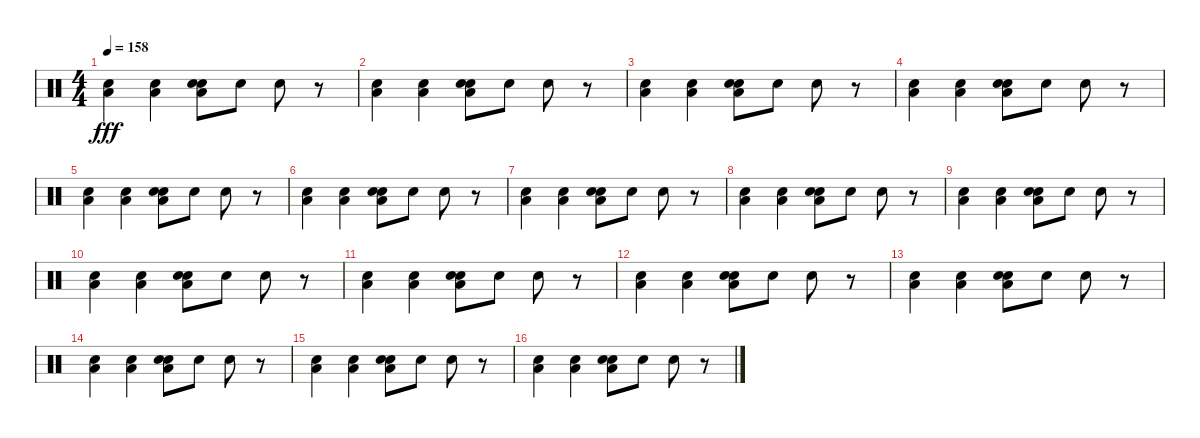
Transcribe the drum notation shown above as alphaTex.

\track "" {instrument percussion}
\staff {score}
\articulation defaults
\ts (4 4)
\tempo 158
\clef neutral
\ks c
("Low Floor Tom (hit)" "Electric Snare (hit)").4{dy fff} ("Low Floor Tom (hit)" "Electric Snare (hit)").4 ("Electric Snare (hit)" "Low Floor Tom (hit)" "Electric Snare (hit)").8 "Electric Snare (hit)".8 "Electric Snare (hit)".8 r.8 |
("Low Floor Tom (hit)" "Snare (hit) 2").4 ("Low Floor Tom (hit)" "Snare (hit) 2").4 ("Electric Snare (hit)" "Low Floor Tom (hit)" "Snare (hit) 2").8 "Electric Snare (hit)".8 "Electric Snare (hit)".8 r.8 |
("Low Floor Tom (hit)" "Snare (hit) 2").4 ("Low Floor Tom (hit)" "Snare (hit) 2").4 ("Electric Snare (hit)" "Low Floor Tom (hit)" "Snare (hit) 2").8 "Electric Snare (hit)".8 "Electric Snare (hit)".8 r.8 |
("Low Floor Tom (hit)" "Electric Snare (hit)").4 ("Low Floor Tom (hit)" "Electric Snare (hit)").4 ("Electric Snare (hit)" "Low Floor Tom (hit)" "Electric Snare (hit)").8 "Electric Snare (hit)".8 "Electric Snare (hit)".8 r.8 |
("Low Floor Tom (hit)" "Electric Snare (hit)").4 ("Low Floor Tom (hit)" "Electric Snare (hit)").4 ("Electric Snare (hit)" "Low Floor Tom (hit)" "Electric Snare (hit)").8 "Electric Snare (hit)".8 "Electric Snare (hit)".8 r.8 |
("Low Floor Tom (hit)" "Electric Snare (hit)").4 ("Low Floor Tom (hit)" "Electric Snare (hit)").4 ("Electric Snare (hit)" "Low Floor Tom (hit)" "Electric Snare (hit)").8 "Electric Snare (hit)".8 "Electric Snare (hit)".8 r.8 |
("Low Floor Tom (hit)" "Electric Snare (hit)").4 ("Low Floor Tom (hit)" "Electric Snare (hit)").4 ("Electric Snare (hit)" "Low Floor Tom (hit)" "Electric Snare (hit)").8 "Electric Snare (hit)".8 "Electric Snare (hit)".8 r.8 |
("Low Floor Tom (hit)" "Snare (hit) 2").4 ("Low Floor Tom (hit)" "Snare (hit) 2").4 ("Electric Snare (hit)" "Low Floor Tom (hit)" "Snare (hit) 2").8 "Electric Snare (hit)".8 "Electric Snare (hit)".8 r.8 |
("Low Floor Tom (hit)" "Snare (hit) 2").4 ("Low Floor Tom (hit)" "Snare (hit) 2").4 ("Electric Snare (hit)" "Low Floor Tom (hit)" "Snare (hit) 2").8 "Electric Snare (hit)".8 "Electric Snare (hit)".8 r.8 |
("Low Floor Tom (hit)" "Electric Snare (hit)").4 ("Low Floor Tom (hit)" "Electric Snare (hit)").4 ("Electric Snare (hit)" "Low Floor Tom (hit)" "Electric Snare (hit)").8 "Electric Snare (hit)".8 "Electric Snare (hit)".8 r.8 |
("Low Floor Tom (hit)" "Electric Snare (hit)").4 ("Low Floor Tom (hit)" "Electric Snare (hit)").4 ("Electric Snare (hit)" "Low Floor Tom (hit)" "Electric Snare (hit)").8 "Electric Snare (hit)".8 "Electric Snare (hit)".8 r.8 |
("Low Floor Tom (hit)" "Electric Snare (hit)").4 ("Low Floor Tom (hit)" "Electric Snare (hit)").4 ("Electric Snare (hit)" "Low Floor Tom (hit)" "Electric Snare (hit)").8 "Electric Snare (hit)".8 "Electric Snare (hit)".8 r.8 |
("Low Floor Tom (hit)" "Electric Snare (hit)").4 ("Low Floor Tom (hit)" "Electric Snare (hit)").4 ("Electric Snare (hit)" "Low Floor Tom (hit)" "Electric Snare (hit)").8 "Electric Snare (hit)".8 "Electric Snare (hit)".8 r.8 |
("Low Floor Tom (hit)" "Snare (hit) 2").4 ("Low Floor Tom (hit)" "Snare (hit) 2").4 ("Electric Snare (hit)" "Low Floor Tom (hit)" "Snare (hit) 2").8 "Electric Snare (hit)".8 "Electric Snare (hit)".8 r.8 |
("Low Floor Tom (hit)" "Snare (hit) 2").4 ("Low Floor Tom (hit)" "Snare (hit) 2").4 ("Electric Snare (hit)" "Low Floor Tom (hit)" "Snare (hit) 2").8 "Electric Snare (hit)".8 "Electric Snare (hit)".8 r.8 |
("Low Floor Tom (hit)" "Electric Snare (hit)").4 ("Low Floor Tom (hit)" "Electric Snare (hit)").4 ("Electric Snare (hit)" "Low Floor Tom (hit)" "Electric Snare (hit)").8 "Electric Snare (hit)".8 "Electric Snare (hit)".8 r.8
